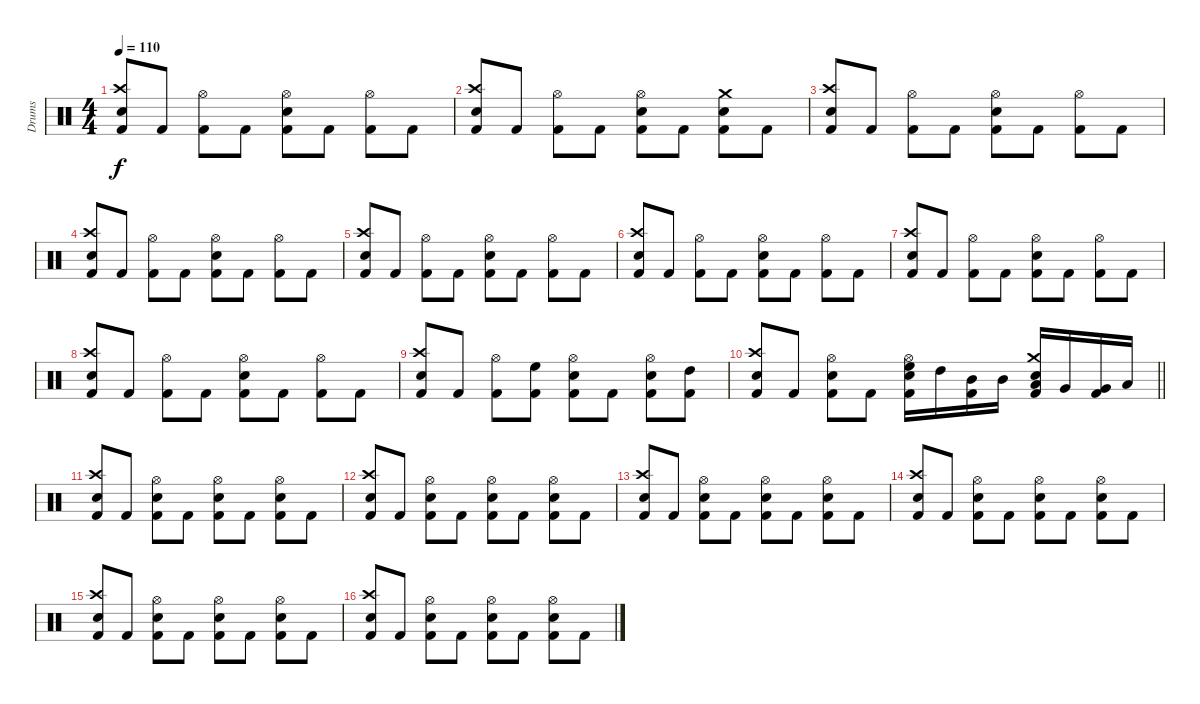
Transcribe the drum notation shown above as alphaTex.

\track ("Drums" "Drums") {instrument percussion}
\staff {score}
\articulation defaults
\ts (4 4)
\tempo 110
\clef neutral
\ks c
("Kick (hit) 2" "Crash high (hit)" "Snare (hit) 2").8{dy f} "Kick (hit) 2".8 ("Kick (hit) 2" "Hi-Hat (open)").8 "Kick (hit) 2".8 ("Kick (hit) 2" "Hi-Hat (open)" "Snare (hit) 2").8 "Kick (hit) 2".8 ("Kick (hit) 2" "Hi-Hat (open)").8 "Kick (hit) 2".8 |
("Kick (hit) 2" "Crash high (hit)" "Snare (hit) 2").8 "Kick (hit) 2".8 ("Kick (hit) 2" "Hi-Hat (open)").8 "Kick (hit) 2".8 ("Kick (hit) 2" "Hi-Hat (open)" "Snare (hit) 2").8 "Kick (hit) 2".8 ("Kick (hit) 2" "Crash medium (hit)" "Snare (hit) 2").8 "Kick (hit) 2".8 |
("Kick (hit) 2" "Crash high (hit)" "Snare (hit) 2").8 "Kick (hit) 2".8 ("Kick (hit) 2" "Hi-Hat (open)").8 "Kick (hit) 2".8 ("Kick (hit) 2" "Hi-Hat (open)" "Snare (hit) 2").8 "Kick (hit) 2".8 ("Kick (hit) 2" "Hi-Hat (open)").8 "Kick (hit) 2".8 |
("Kick (hit) 2" "Crash high (hit)" "Snare (hit) 2").8 "Kick (hit) 2".8 ("Kick (hit) 2" "Hi-Hat (open)").8 "Kick (hit) 2".8 ("Kick (hit) 2" "Hi-Hat (open)" "Snare (hit) 2").8 "Kick (hit) 2".8 ("Kick (hit) 2" "Hi-Hat (open)").8 "Kick (hit) 2".8 |
("Kick (hit) 2" "Crash high (hit)" "Snare (hit) 2").8 "Kick (hit) 2".8 ("Kick (hit) 2" "Hi-Hat (open)").8 "Kick (hit) 2".8 ("Kick (hit) 2" "Hi-Hat (open)" "Snare (hit) 2").8 "Kick (hit) 2".8 ("Kick (hit) 2" "Hi-Hat (open)").8 "Kick (hit) 2".8 |
("Kick (hit) 2" "Crash high (hit)" "Snare (hit) 2").8 "Kick (hit) 2".8 ("Kick (hit) 2" "Hi-Hat (open)").8 "Kick (hit) 2".8 ("Kick (hit) 2" "Hi-Hat (open)" "Snare (hit) 2").8 "Kick (hit) 2".8 ("Kick (hit) 2" "Hi-Hat (open)").8 "Kick (hit) 2".8 |
("Kick (hit) 2" "Crash high (hit)" "Snare (hit) 2").8 "Kick (hit) 2".8 ("Kick (hit) 2" "Hi-Hat (open)").8 "Kick (hit) 2".8 ("Kick (hit) 2" "Hi-Hat (open)" "Snare (hit) 2").8 "Kick (hit) 2".8 ("Kick (hit) 2" "Hi-Hat (open)").8 "Kick (hit) 2".8 |
("Kick (hit) 2" "Crash high (hit)" "Snare (hit) 2").8 "Kick (hit) 2".8 ("Kick (hit) 2" "Hi-Hat (open)").8 "Kick (hit) 2".8 ("Kick (hit) 2" "Hi-Hat (open)" "Snare (hit) 2").8 "Kick (hit) 2".8 ("Kick (hit) 2" "Hi-Hat (open)").8 "Kick (hit) 2".8 |
("Kick (hit) 2" "Crash high (hit)" "Snare (hit) 2").8 "Kick (hit) 2".8 ("Kick (hit) 2" "Hi-Hat (open)").8 ("Kick (hit) 2" "High Floor Tom (hit)").8 ("Kick (hit) 2" "Hi-Hat (open)" "Snare (hit) 2").8 "Kick (hit) 2".8 ("Kick (hit) 2" "Hi-Hat (open)" "Snare (hit) 2").8 ("Kick (hit) 2" "High Tom (hit)").8 |
\barLineRight lightlight
("Kick (hit) 2" "Crash high (hit)" "Snare (hit) 2").8 "Kick (hit) 2".8 ("Kick (hit) 2" "Hi-Hat (open)" "Snare (hit) 2").8 "Kick (hit) 2".8 ("Kick (hit) 2" "Hi-Hat (open)" "High Floor Tom (hit)" "Snare (hit) 2").16 "High Tom (hit)".16 ("Kick (hit) 2" "Mid Tom (hit)").16 "Mid Tom (hit)".16 ("Kick (hit) 2" "Crash medium (hit)" "Low Tom (hit)" "Snare (hit) 2").16 "Very Low Tom (hit)".16 ("Kick (hit) 2" "Very Low Tom (hit)").16 "Low Floor Tom (hit)".16 |
\section ("" "")
("Kick (hit) 2" "Crash high (hit)" "Snare (hit) 2").8 "Kick (hit) 2".8 ("Kick (hit) 2" "Hi-Hat (open)" "Snare (hit) 2").8 "Kick (hit) 2".8 ("Kick (hit) 2" "Hi-Hat (open)" "Snare (hit) 2").8 "Kick (hit) 2".8 ("Kick (hit) 2" "Hi-Hat (open)" "Snare (hit) 2").8 "Kick (hit) 2".8 |
("Kick (hit) 2" "Crash high (hit)" "Snare (hit) 2").8 "Kick (hit) 2".8 ("Kick (hit) 2" "Hi-Hat (open)" "Snare (hit) 2").8 "Kick (hit) 2".8 ("Kick (hit) 2" "Hi-Hat (open)" "Snare (hit) 2").8 "Kick (hit) 2".8 ("Kick (hit) 2" "Hi-Hat (open)" "Snare (hit) 2").8 "Kick (hit) 2".8 |
("Kick (hit) 2" "Crash high (hit)" "Snare (hit) 2").8 "Kick (hit) 2".8 ("Kick (hit) 2" "Hi-Hat (open)" "Snare (hit) 2").8 "Kick (hit) 2".8 ("Kick (hit) 2" "Hi-Hat (open)" "Snare (hit) 2").8 "Kick (hit) 2".8 ("Kick (hit) 2" "Hi-Hat (open)" "Snare (hit) 2").8 "Kick (hit) 2".8 |
("Kick (hit) 2" "Crash high (hit)" "Snare (hit) 2").8 "Kick (hit) 2".8 ("Kick (hit) 2" "Hi-Hat (open)" "Snare (hit) 2").8 "Kick (hit) 2".8 ("Kick (hit) 2" "Hi-Hat (open)" "Snare (hit) 2").8 "Kick (hit) 2".8 ("Kick (hit) 2" "Hi-Hat (open)" "Snare (hit) 2").8 "Kick (hit) 2".8 |
("Kick (hit) 2" "Crash high (hit)" "Snare (hit) 2").8 "Kick (hit) 2".8 ("Kick (hit) 2" "Hi-Hat (open)" "Snare (hit) 2").8 "Kick (hit) 2".8 ("Kick (hit) 2" "Hi-Hat (open)" "Snare (hit) 2").8 "Kick (hit) 2".8 ("Kick (hit) 2" "Hi-Hat (open)" "Snare (hit) 2").8 "Kick (hit) 2".8 |
("Kick (hit) 2" "Crash high (hit)" "Snare (hit) 2").8 "Kick (hit) 2".8 ("Kick (hit) 2" "Hi-Hat (open)" "Snare (hit) 2").8 "Kick (hit) 2".8 ("Kick (hit) 2" "Hi-Hat (open)" "Snare (hit) 2").8 "Kick (hit) 2".8 ("Kick (hit) 2" "Hi-Hat (open)" "Snare (hit) 2").8 "Kick (hit) 2".8
